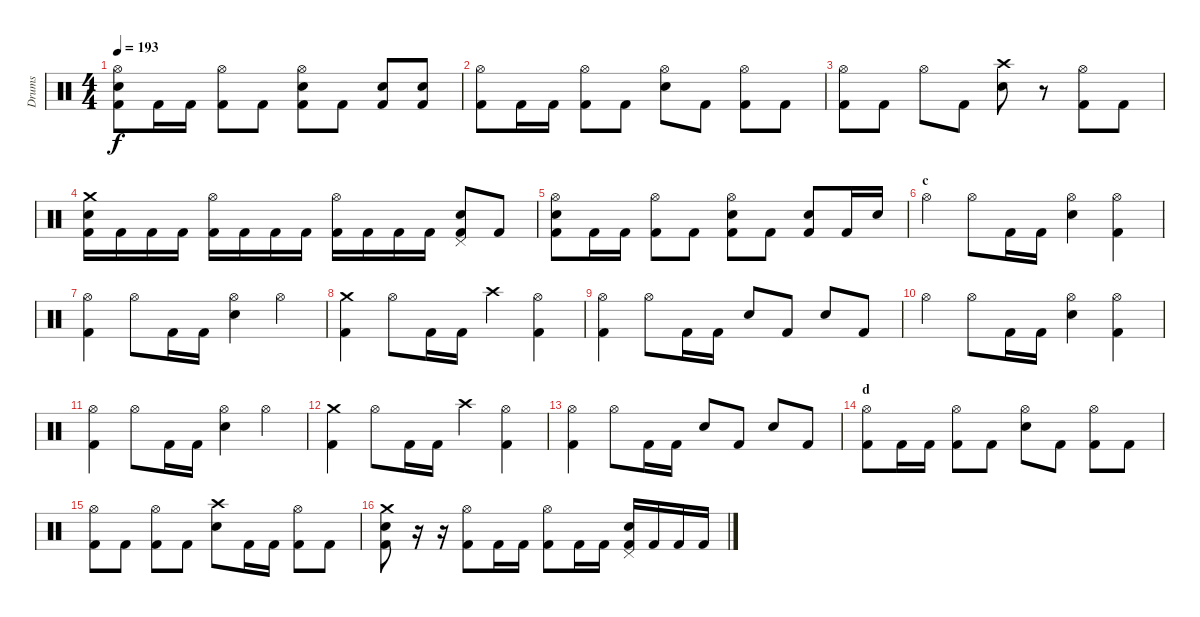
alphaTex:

\track ("Drums" "Drums") {instrument percussion}
\staff {score}
\articulation defaults
\ts (4 4)
\tempo 193
\clef neutral
\ks c
("Hi-Hat (open)" "Snare (hit) 2" "Kick (hit) 2").8{dy f} "Kick (hit) 2".16 "Kick (hit) 2".16 ("Hi-Hat (open)" "Kick (hit) 2").8 "Kick (hit) 2".8 ("Hi-Hat (open)" "Snare (hit) 2" "Kick (hit) 2").8 "Kick (hit) 2".8 ("Snare (hit) 2" "Kick (hit) 2").8 ("Snare (hit) 2" "Kick (hit) 2").8 |
("Hi-Hat (open)" "Kick (hit) 2").8 "Kick (hit) 2".16 "Kick (hit) 2".16 ("Hi-Hat (open)" "Kick (hit) 2").8 "Kick (hit) 2".8 ("Hi-Hat (open)" "Snare (hit) 2").8 "Kick (hit) 2".8 ("Hi-Hat (open)" "Kick (hit) 2").8 "Kick (hit) 2".8 |
("Hi-Hat (open)" "Kick (hit) 2").8 "Kick (hit) 2".8 "Hi-Hat (open)".8 "Kick (hit) 2".8 ("Crash high (hit)" "Snare (hit) 2").8 r.8 ("Hi-Hat (open)" "Kick (hit) 2").8 "Kick (hit) 2".8 |
("Crash medium (hit)" "Snare (hit) 2" "Kick (hit) 2").16 "Kick (hit) 2".16 "Kick (hit) 2".16 "Kick (hit) 2".16 ("Hi-Hat (open)" "Kick (hit) 2").16 "Kick (hit) 2".16 "Kick (hit) 2".16 "Kick (hit) 2".16 ("Hi-Hat (open)" "Kick (hit) 2").16 "Kick (hit) 2".16 "Kick (hit) 2".16 "Kick (hit) 2".16 ("Pedal Hi-Hat (hit)" "Snare (hit) 2" "Kick (hit) 2").8 "Kick (hit) 2".8 |
("Hi-Hat (open)" "Snare (hit) 2" "Kick (hit) 2").8 "Kick (hit) 2".16 "Kick (hit) 2".16 ("Hi-Hat (open)" "Kick (hit) 2").8 "Kick (hit) 2".8 ("Hi-Hat (open)" "Snare (hit) 2" "Kick (hit) 2").8 "Kick (hit) 2".8 ("Snare (hit) 2" "Kick (hit) 2").8 "Kick (hit) 2".16 "Snare (hit) 2".16 |
\section ("" "c")
"Hi-Hat (open)".4 "Hi-Hat (open)".8 "Kick (hit) 2".16 "Kick (hit) 2".16 ("Hi-Hat (open)" "Snare (hit) 2").4 ("Hi-Hat (open)" "Kick (hit) 2").4 |
("Hi-Hat (open)" "Kick (hit) 2").4 "Hi-Hat (open)".8 "Kick (hit) 2".16 "Kick (hit) 2".16 ("Hi-Hat (open)" "Snare (hit) 2").4 "Hi-Hat (open)".4 |
("Crash medium (hit)" "Kick (hit) 2").4 "Hi-Hat (open)".8 "Kick (hit) 2".16 "Kick (hit) 2".16 "Crash high (hit)".4 ("Hi-Hat (open)" "Kick (hit) 2").4 |
("Hi-Hat (open)" "Kick (hit) 2").4 "Hi-Hat (open)".8 "Kick (hit) 2".16 "Kick (hit) 2".16 "Snare (hit) 2".8 "Kick (hit) 2".8 "Snare (hit) 2".8 "Kick (hit) 2".8 |
"Hi-Hat (open)".4 "Hi-Hat (open)".8 "Kick (hit) 2".16 "Kick (hit) 2".16 ("Hi-Hat (open)" "Snare (hit) 2").4 ("Hi-Hat (open)" "Kick (hit) 2").4 |
("Hi-Hat (open)" "Kick (hit) 2").4 "Hi-Hat (open)".8 "Kick (hit) 2".16 "Kick (hit) 2".16 ("Hi-Hat (open)" "Snare (hit) 2").4 "Hi-Hat (open)".4 |
("Crash medium (hit)" "Kick (hit) 2").4 "Hi-Hat (open)".8 "Kick (hit) 2".16 "Kick (hit) 2".16 "Crash high (hit)".4 ("Hi-Hat (open)" "Kick (hit) 2").4 |
("Hi-Hat (open)" "Kick (hit) 2").4 "Hi-Hat (open)".8 "Kick (hit) 2".16 "Kick (hit) 2".16 "Snare (hit) 2".8 "Kick (hit) 2".8 "Snare (hit) 2".8 "Kick (hit) 2".8 |
\section ("" "d")
("Hi-Hat (open)" "Kick (hit) 2").8 "Kick (hit) 2".16 "Kick (hit) 2".16 ("Hi-Hat (open)" "Kick (hit) 2").8 "Kick (hit) 2".8 ("Hi-Hat (open)" "Snare (hit) 2").8 "Kick (hit) 2".8 ("Hi-Hat (open)" "Kick (hit) 2").8 "Kick (hit) 2".8 |
("Hi-Hat (open)" "Kick (hit) 2").8 "Kick (hit) 2".8 ("Hi-Hat (open)" "Kick (hit) 2").8 "Kick (hit) 2".8 ("Crash high (hit)" "Snare (hit) 2").8 "Kick (hit) 2".16 "Kick (hit) 2".16 ("Hi-Hat (open)" "Kick (hit) 2").8 "Kick (hit) 2".8 |
("Crash medium (hit)" "Snare (hit) 2" "Kick (hit) 2").8 r.16 r.16 ("Hi-Hat (open)" "Kick (hit) 2").8 "Kick (hit) 2".16 "Kick (hit) 2".16 ("Hi-Hat (open)" "Kick (hit) 2").8 "Kick (hit) 2".16 "Kick (hit) 2".16 ("Pedal Hi-Hat (hit)" "Snare (hit) 2" "Kick (hit) 2").16 "Kick (hit) 2".16 "Kick (hit) 2".16 "Kick (hit) 2".16
